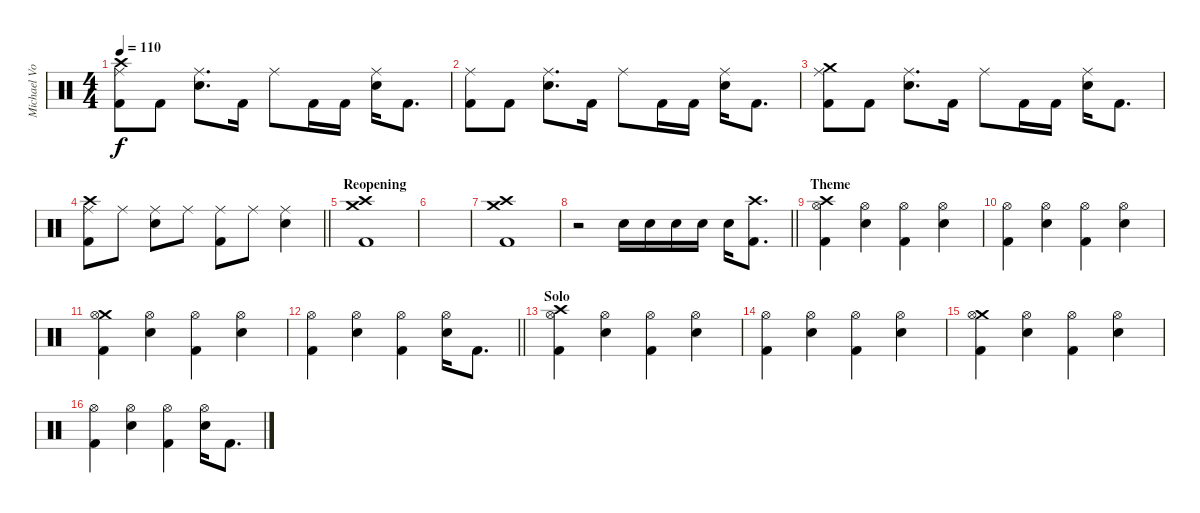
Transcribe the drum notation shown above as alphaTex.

\track ("Michael Von Knorring" "Michael Vo") {instrument percussion}
\staff {score}
\articulation defaults
\ts (4 4)
\tempo 110
\clef neutral
\ks c
("Crash high (hit)" "Ride (middle)" "Kick (hit) 2").8{dy f} "Kick (hit) 2".8 ("Ride (middle)" "Snare (hit) 2").8{d} "Kick (hit) 2".16 "Ride (middle)".8 "Kick (hit) 2".16 "Kick (hit) 2".16 ("Ride (middle)" "Snare (hit) 2").16 "Kick (hit) 2".8{d} |
("Ride (middle)" "Kick (hit) 2").8 "Kick (hit) 2".8 ("Ride (middle)" "Snare (hit) 2").8{d} "Kick (hit) 2".16 "Ride (middle)".8 "Kick (hit) 2".16 "Kick (hit) 2".16 ("Ride (middle)" "Snare (hit) 2").16 "Kick (hit) 2".8{d} |
("Crash medium (hit)" "Ride (middle)" "Kick (hit) 2").8 "Kick (hit) 2".8 ("Ride (middle)" "Snare (hit) 2").8{d} "Kick (hit) 2".16 "Ride (middle)".8 "Kick (hit) 2".16 "Kick (hit) 2".16 ("Ride (middle)" "Snare (hit) 2").16 "Kick (hit) 2".8{d} |
\barLineRight lightlight
("Crash high (hit)" "Ride (middle)" "Kick (hit) 2").8 "Ride (middle)".8 ("Ride (middle)" "Snare (hit) 2").8 "Ride (middle)".8 ("Ride (middle)" "Kick (hit) 2").8 "Ride (middle)".8 ("Ride (middle)" "Snare (hit) 2").4 |
\section ("" "Reopening")
("Crash high (hit)" "Crash medium (hit)" "Kick (hit) 2").1 |
|
("Crash high (hit)" "Crash medium (hit)" "Kick (hit) 2").1 |
\barLineRight lightlight
r.2 "Snare (hit) 2".16 "Snare (hit) 2".16 "Snare (hit) 2".16 "Snare (hit) 2".16 "Snare (hit) 2".16 ("Crash high (hit)" "Kick (hit) 2").8{d} |
\section ("" "Theme")
("Crash high (hit)" "Hi-Hat (open)" "Kick (hit) 2").4 ("Hi-Hat (open)" "Snare (hit) 2").4 ("Hi-Hat (open)" "Kick (hit) 2").4 ("Hi-Hat (open)" "Snare (hit) 2").4 |
("Hi-Hat (open)" "Kick (hit) 2").4 ("Hi-Hat (open)" "Snare (hit) 2").4 ("Hi-Hat (open)" "Kick (hit) 2").4 ("Hi-Hat (open)" "Snare (hit) 2").4 |
("Crash medium (hit)" "Hi-Hat (open)" "Kick (hit) 2").4 ("Hi-Hat (open)" "Snare (hit) 2").4 ("Hi-Hat (open)" "Kick (hit) 2").4 ("Hi-Hat (open)" "Snare (hit) 2").4 |
\barLineRight lightlight
("Hi-Hat (open)" "Kick (hit) 2").4 ("Hi-Hat (open)" "Snare (hit) 2").4 ("Hi-Hat (open)" "Kick (hit) 2").4 ("Hi-Hat (open)" "Snare (hit) 2").16 "Kick (hit) 2".8{d} |
\section ("" "Solo")
("Crash high (hit)" "Hi-Hat (open)" "Kick (hit) 2").4 ("Hi-Hat (open)" "Snare (hit) 2").4 ("Hi-Hat (open)" "Kick (hit) 2").4 ("Hi-Hat (open)" "Snare (hit) 2").4 |
("Hi-Hat (open)" "Kick (hit) 2").4 ("Hi-Hat (open)" "Snare (hit) 2").4 ("Hi-Hat (open)" "Kick (hit) 2").4 ("Hi-Hat (open)" "Snare (hit) 2").4 |
("Crash medium (hit)" "Hi-Hat (open)" "Kick (hit) 2").4 ("Hi-Hat (open)" "Snare (hit) 2").4 ("Hi-Hat (open)" "Kick (hit) 2").4 ("Hi-Hat (open)" "Snare (hit) 2").4 |
("Hi-Hat (open)" "Kick (hit) 2").4 ("Hi-Hat (open)" "Snare (hit) 2").4 ("Hi-Hat (open)" "Kick (hit) 2").4 ("Hi-Hat (open)" "Snare (hit) 2").16 "Kick (hit) 2".8{d}
